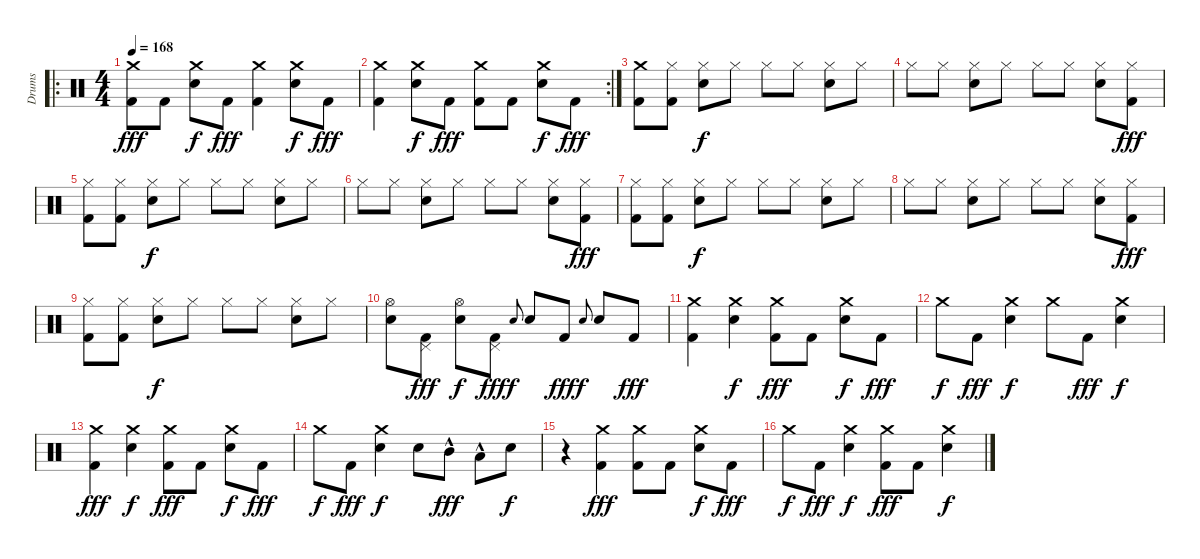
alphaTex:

\track ("Drums" "Drums") {instrument percussion}
\staff {score}
\articulation defaults
\ro
\ts (4 4)
\tempo 168
\clef neutral
\ks c
("Crash medium (hit)" "Kick (hit) 2").8{dy fff} "Kick (hit) 2".8 ("Crash medium (hit)" "Electric Snare (hit)").8{dy f} "Kick (hit) 2".8{dy fff} ("Crash medium (hit)" "Kick (hit) 2").4 ("Crash medium (hit)" "Electric Snare (hit)").8{dy f} "Kick (hit) 2".8{dy fff} |
\rc 2
("Crash medium (hit)" "Kick (hit) 2").4 ("Crash medium (hit)" "Electric Snare (hit)").8{dy f} "Kick (hit) 2".8{dy fff} ("Crash medium (hit)" "Kick (hit) 2").8 "Kick (hit) 2".8 ("Crash medium (hit)" "Electric Snare (hit)").8{dy f} "Kick (hit) 2".8{dy fff} |
("Crash medium (hit)" "Kick (hit) 2").8 ("Hi-Hat (closed)" "Kick (hit) 2").8 ("Hi-Hat (closed)" "Electric Snare (hit)").8{dy f} "Hi-Hat (closed)".8 "Hi-Hat (closed)".8 "Hi-Hat (closed)".8 ("Hi-Hat (closed)" "Electric Snare (hit)").8 "Hi-Hat (closed)".8 |
"Hi-Hat (closed)".8 "Hi-Hat (closed)".8 ("Hi-Hat (closed)" "Electric Snare (hit)").8 "Hi-Hat (closed)".8 "Hi-Hat (closed)".8 "Hi-Hat (closed)".8 ("Hi-Hat (closed)" "Electric Snare (hit)").8 ("Hi-Hat (closed)" "Kick (hit) 2").8{dy fff} |
("Hi-Hat (closed)" "Kick (hit) 2").8 ("Hi-Hat (closed)" "Kick (hit) 2").8 ("Hi-Hat (closed)" "Electric Snare (hit)").8{dy f} "Hi-Hat (closed)".8 "Hi-Hat (closed)".8 "Hi-Hat (closed)".8 ("Hi-Hat (closed)" "Electric Snare (hit)").8 "Hi-Hat (closed)".8 |
"Hi-Hat (closed)".8 "Hi-Hat (closed)".8 ("Hi-Hat (closed)" "Electric Snare (hit)").8 "Hi-Hat (closed)".8 "Hi-Hat (closed)".8 "Hi-Hat (closed)".8 ("Hi-Hat (closed)" "Electric Snare (hit)").8 ("Hi-Hat (closed)" "Kick (hit) 2").8{dy fff} |
("Hi-Hat (closed)" "Kick (hit) 2").8 ("Hi-Hat (closed)" "Kick (hit) 2").8 ("Hi-Hat (closed)" "Electric Snare (hit)").8{dy f} "Hi-Hat (closed)".8 "Hi-Hat (closed)".8 "Hi-Hat (closed)".8 ("Hi-Hat (closed)" "Electric Snare (hit)").8 "Hi-Hat (closed)".8 |
"Hi-Hat (closed)".8 "Hi-Hat (closed)".8 ("Hi-Hat (closed)" "Electric Snare (hit)").8 "Hi-Hat (closed)".8 "Hi-Hat (closed)".8 "Hi-Hat (closed)".8 ("Hi-Hat (closed)" "Electric Snare (hit)").8 ("Hi-Hat (closed)" "Kick (hit) 2").8{dy fff} |
("Hi-Hat (closed)" "Kick (hit) 2").8 ("Hi-Hat (closed)" "Kick (hit) 2").8 ("Hi-Hat (closed)" "Electric Snare (hit)").8{dy f} "Hi-Hat (closed)".8 "Hi-Hat (closed)".8 "Hi-Hat (closed)".8 ("Hi-Hat (closed)" "Electric Snare (hit)").8 "Hi-Hat (closed)".8 |
("Hi-Hat (open)" "Electric Snare (hit)").8 ("Pedal Hi-Hat (hit)" "Kick (hit) 2").8{dy fff} ("Hi-Hat (open)" "Electric Snare (hit)").8{dy f} ("Pedal Hi-Hat (hit)" "Kick (hit) 2").8{dy fff} "Electric Snare (hit)".8{gr onbeat dy f} "Electric Snare (hit)".8 "Kick (hit) 2".8{dy fff} "Electric Snare (hit)".8{gr onbeat dy f} "Electric Snare (hit)".8 "Kick (hit) 2".8{dy fff} |
("Crash medium (hit)" "Kick (hit) 2").4 ("Crash medium (hit)" "Electric Snare (hit)").4{dy f} ("Crash medium (hit)" "Kick (hit) 2").8{dy fff} "Kick (hit) 2".8 ("Crash medium (hit)" "Electric Snare (hit)").8{dy f} "Kick (hit) 2".8{dy fff} |
"Crash medium (hit)".8{dy f} "Kick (hit) 2".8{dy fff} ("Crash medium (hit)" "Electric Snare (hit)").4{dy f} "Crash medium (hit)".8 "Kick (hit) 2".8{dy fff} ("Crash medium (hit)" "Electric Snare (hit)").4{dy f} |
("Crash medium (hit)" "Kick (hit) 2").4{dy fff} ("Crash medium (hit)" "Electric Snare (hit)").4{dy f} ("Crash medium (hit)" "Kick (hit) 2").8{dy fff} "Kick (hit) 2".8 ("Crash medium (hit)" "Electric Snare (hit)").8{dy f} "Kick (hit) 2".8{dy fff} |
"Crash medium (hit)".8{dy f} "Kick (hit) 2".8{dy fff} ("Crash medium (hit)" "Electric Snare (hit)").4{dy f} "Electric Snare (hit)".8 "Mid Tom (hit)"{hac}.8{dy fff} "Low Tom (hit)"{hac}.8 "Electric Snare (hit)".8{dy f} |
r.4 ("Crash medium (hit)" "Kick (hit) 2").4{dy fff} ("Crash medium (hit)" "Kick (hit) 2").8 "Kick (hit) 2".8 ("Crash medium (hit)" "Electric Snare (hit)").8{dy f} "Kick (hit) 2".8{dy fff} |
"Crash medium (hit)".8{dy f} "Kick (hit) 2".8{dy fff} ("Crash medium (hit)" "Electric Snare (hit)").4{dy f} ("Crash medium (hit)" "Kick (hit) 2").8{dy fff} "Kick (hit) 2".8 ("Crash medium (hit)" "Electric Snare (hit)").4{dy f}
